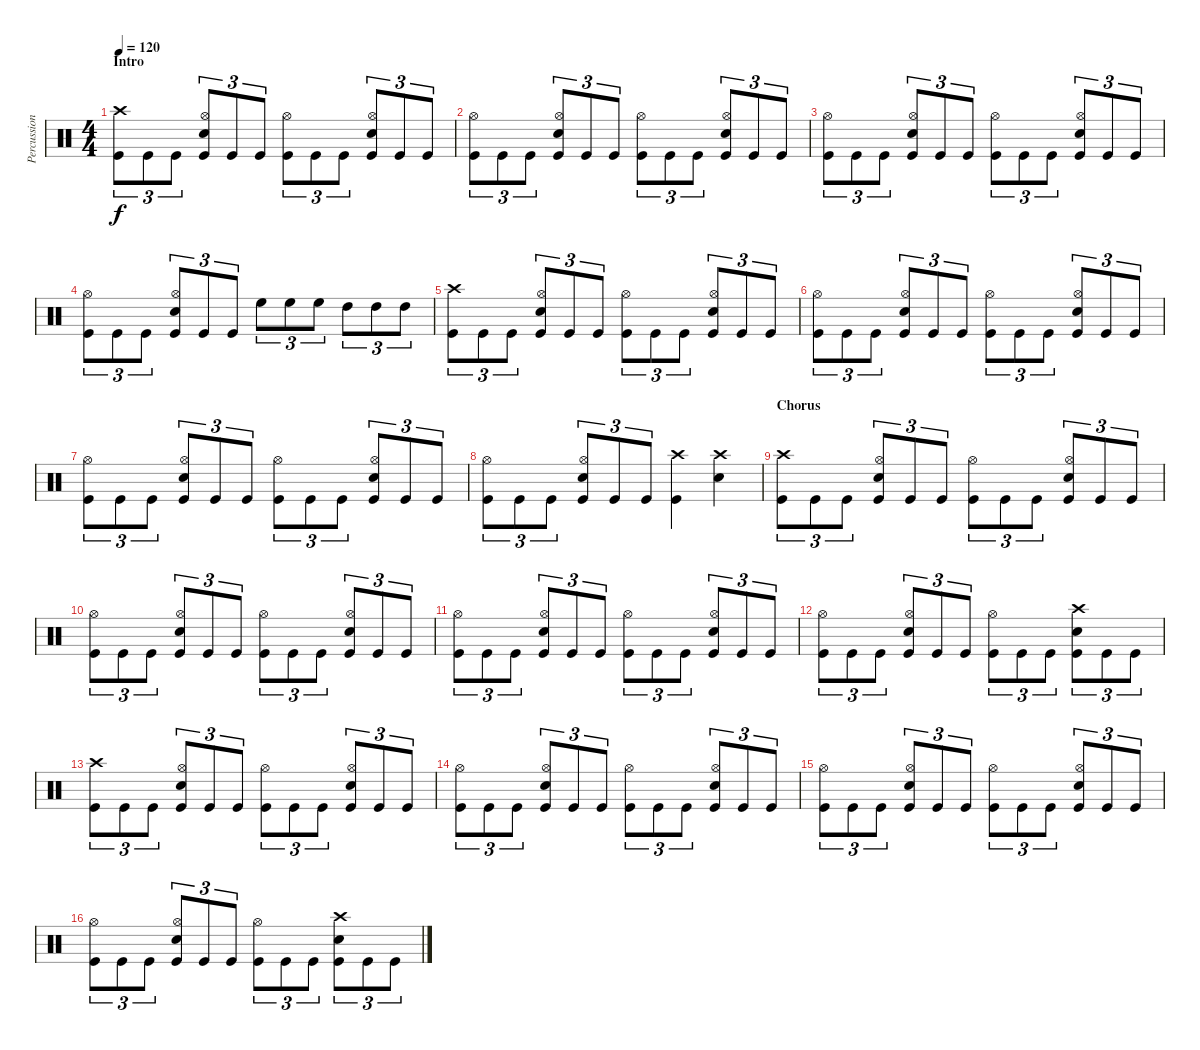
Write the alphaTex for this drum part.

\track ("Percussion" "Percussion") {instrument percussion}
\staff {score}
\articulation defaults
\ts (4 4)
\section ("" "Intro")
\tempo 120
\clef neutral
\ks c
("Crash high (hit)" "Kick (hit)").8{tu (3 2) dy f} "Kick (hit)".8{tu (3 2)} "Kick (hit)".8{tu (3 2)} ("Hi-Hat (open)" "Snare (hit) 2" "Kick (hit)").8{tu (3 2)} "Kick (hit)".8{tu (3 2)} "Kick (hit)".8{tu (3 2)} ("Hi-Hat (open)" "Kick (hit)").8{tu (3 2)} "Kick (hit)".8{tu (3 2)} "Kick (hit)".8{tu (3 2)} ("Hi-Hat (open)" "Snare (hit) 2" "Kick (hit)").8{tu (3 2)} "Kick (hit)".8{tu (3 2)} "Kick (hit)".8{tu (3 2)} |
("Hi-Hat (open)" "Kick (hit)").8{tu (3 2)} "Kick (hit)".8{tu (3 2)} "Kick (hit)".8{tu (3 2)} ("Hi-Hat (open)" "Snare (hit) 2" "Kick (hit)").8{tu (3 2)} "Kick (hit)".8{tu (3 2)} "Kick (hit)".8{tu (3 2)} ("Hi-Hat (open)" "Kick (hit)").8{tu (3 2)} "Kick (hit)".8{tu (3 2)} "Kick (hit)".8{tu (3 2)} ("Hi-Hat (open)" "Snare (hit) 2" "Kick (hit)").8{tu (3 2)} "Kick (hit)".8{tu (3 2)} "Kick (hit)".8{tu (3 2)} |
("Hi-Hat (open)" "Kick (hit)").8{tu (3 2)} "Kick (hit)".8{tu (3 2)} "Kick (hit)".8{tu (3 2)} ("Hi-Hat (open)" "Snare (hit) 2" "Kick (hit)").8{tu (3 2)} "Kick (hit)".8{tu (3 2)} "Kick (hit)".8{tu (3 2)} ("Hi-Hat (open)" "Kick (hit)").8{tu (3 2)} "Kick (hit)".8{tu (3 2)} "Kick (hit)".8{tu (3 2)} ("Hi-Hat (open)" "Snare (hit) 2" "Kick (hit)").8{tu (3 2)} "Kick (hit)".8{tu (3 2)} "Kick (hit)".8{tu (3 2)} |
("Hi-Hat (open)" "Kick (hit)").8{tu (3 2)} "Kick (hit)".8{tu (3 2)} "Kick (hit)".8{tu (3 2)} ("Hi-Hat (open)" "Snare (hit) 2" "Kick (hit)").8{tu (3 2)} "Kick (hit)".8{tu (3 2)} "Kick (hit)".8{tu (3 2)} "High Floor Tom (hit)".8{tu (3 2)} "High Floor Tom (hit)".8{tu (3 2)} "High Floor Tom (hit)".8{tu (3 2)} "High Tom (hit)".8{tu (3 2)} "High Tom (hit)".8{tu (3 2)} "High Tom (hit)".8{tu (3 2)} |
("Crash high (hit)" "Kick (hit)").8{tu (3 2)} "Kick (hit)".8{tu (3 2)} "Kick (hit)".8{tu (3 2)} ("Hi-Hat (open)" "Snare (hit) 2" "Kick (hit)").8{tu (3 2)} "Kick (hit)".8{tu (3 2)} "Kick (hit)".8{tu (3 2)} ("Hi-Hat (open)" "Kick (hit)").8{tu (3 2)} "Kick (hit)".8{tu (3 2)} "Kick (hit)".8{tu (3 2)} ("Hi-Hat (open)" "Snare (hit) 2" "Kick (hit)").8{tu (3 2)} "Kick (hit)".8{tu (3 2)} "Kick (hit)".8{tu (3 2)} |
("Hi-Hat (open)" "Kick (hit)").8{tu (3 2)} "Kick (hit)".8{tu (3 2)} "Kick (hit)".8{tu (3 2)} ("Hi-Hat (open)" "Snare (hit) 2" "Kick (hit)").8{tu (3 2)} "Kick (hit)".8{tu (3 2)} "Kick (hit)".8{tu (3 2)} ("Hi-Hat (open)" "Kick (hit)").8{tu (3 2)} "Kick (hit)".8{tu (3 2)} "Kick (hit)".8{tu (3 2)} ("Hi-Hat (open)" "Snare (hit) 2" "Kick (hit)").8{tu (3 2)} "Kick (hit)".8{tu (3 2)} "Kick (hit)".8{tu (3 2)} |
("Hi-Hat (open)" "Kick (hit)").8{tu (3 2)} "Kick (hit)".8{tu (3 2)} "Kick (hit)".8{tu (3 2)} ("Hi-Hat (open)" "Snare (hit) 2" "Kick (hit)").8{tu (3 2)} "Kick (hit)".8{tu (3 2)} "Kick (hit)".8{tu (3 2)} ("Hi-Hat (open)" "Kick (hit)").8{tu (3 2)} "Kick (hit)".8{tu (3 2)} "Kick (hit)".8{tu (3 2)} ("Hi-Hat (open)" "Snare (hit) 2" "Kick (hit)").8{tu (3 2)} "Kick (hit)".8{tu (3 2)} "Kick (hit)".8{tu (3 2)} |
("Hi-Hat (open)" "Kick (hit)").8{tu (3 2)} "Kick (hit)".8{tu (3 2)} "Kick (hit)".8{tu (3 2)} ("Hi-Hat (open)" "Snare (hit) 2" "Kick (hit)").8{tu (3 2)} "Kick (hit)".8{tu (3 2)} "Kick (hit)".8{tu (3 2)} ("Crash high (hit)" "Kick (hit)").4 ("Crash high (hit)" "Snare (hit) 2").4 |
\section ("" "Chorus")
("Crash high (hit)" "Kick (hit)").8{tu (3 2)} "Kick (hit)".8{tu (3 2)} "Kick (hit)".8{tu (3 2)} ("Hi-Hat (open)" "Snare (hit) 2" "Kick (hit)").8{tu (3 2)} "Kick (hit)".8{tu (3 2)} "Kick (hit)".8{tu (3 2)} ("Hi-Hat (open)" "Kick (hit)").8{tu (3 2)} "Kick (hit)".8{tu (3 2)} "Kick (hit)".8{tu (3 2)} ("Hi-Hat (open)" "Snare (hit) 2" "Kick (hit)").8{tu (3 2)} "Kick (hit)".8{tu (3 2)} "Kick (hit)".8{tu (3 2)} |
("Hi-Hat (open)" "Kick (hit)").8{tu (3 2)} "Kick (hit)".8{tu (3 2)} "Kick (hit)".8{tu (3 2)} ("Hi-Hat (open)" "Snare (hit) 2" "Kick (hit)").8{tu (3 2)} "Kick (hit)".8{tu (3 2)} "Kick (hit)".8{tu (3 2)} ("Hi-Hat (open)" "Kick (hit)").8{tu (3 2)} "Kick (hit)".8{tu (3 2)} "Kick (hit)".8{tu (3 2)} ("Hi-Hat (open)" "Snare (hit) 2" "Kick (hit)").8{tu (3 2)} "Kick (hit)".8{tu (3 2)} "Kick (hit)".8{tu (3 2)} |
("Hi-Hat (open)" "Kick (hit)").8{tu (3 2)} "Kick (hit)".8{tu (3 2)} "Kick (hit)".8{tu (3 2)} ("Hi-Hat (open)" "Snare (hit) 2" "Kick (hit)").8{tu (3 2)} "Kick (hit)".8{tu (3 2)} "Kick (hit)".8{tu (3 2)} ("Hi-Hat (open)" "Kick (hit)").8{tu (3 2)} "Kick (hit)".8{tu (3 2)} "Kick (hit)".8{tu (3 2)} ("Hi-Hat (open)" "Snare (hit) 2" "Kick (hit)").8{tu (3 2)} "Kick (hit)".8{tu (3 2)} "Kick (hit)".8{tu (3 2)} |
("Hi-Hat (open)" "Kick (hit)").8{tu (3 2)} "Kick (hit)".8{tu (3 2)} "Kick (hit)".8{tu (3 2)} ("Hi-Hat (open)" "Snare (hit) 2" "Kick (hit)").8{tu (3 2)} "Kick (hit)".8{tu (3 2)} "Kick (hit)".8{tu (3 2)} ("Hi-Hat (open)" "Kick (hit)").8{tu (3 2)} "Kick (hit)".8{tu (3 2)} "Kick (hit)".8{tu (3 2)} ("Crash high (hit)" "Snare (hit) 2" "Kick (hit)").8{tu (3 2)} "Kick (hit)".8{tu (3 2)} "Kick (hit)".8{tu (3 2)} |
("Crash high (hit)" "Kick (hit)").8{tu (3 2)} "Kick (hit)".8{tu (3 2)} "Kick (hit)".8{tu (3 2)} ("Hi-Hat (open)" "Snare (hit) 2" "Kick (hit)").8{tu (3 2)} "Kick (hit)".8{tu (3 2)} "Kick (hit)".8{tu (3 2)} ("Hi-Hat (open)" "Kick (hit)").8{tu (3 2)} "Kick (hit)".8{tu (3 2)} "Kick (hit)".8{tu (3 2)} ("Hi-Hat (open)" "Snare (hit) 2" "Kick (hit)").8{tu (3 2)} "Kick (hit)".8{tu (3 2)} "Kick (hit)".8{tu (3 2)} |
("Hi-Hat (open)" "Kick (hit)").8{tu (3 2)} "Kick (hit)".8{tu (3 2)} "Kick (hit)".8{tu (3 2)} ("Hi-Hat (open)" "Snare (hit) 2" "Kick (hit)").8{tu (3 2)} "Kick (hit)".8{tu (3 2)} "Kick (hit)".8{tu (3 2)} ("Hi-Hat (open)" "Kick (hit)").8{tu (3 2)} "Kick (hit)".8{tu (3 2)} "Kick (hit)".8{tu (3 2)} ("Hi-Hat (open)" "Snare (hit) 2" "Kick (hit)").8{tu (3 2)} "Kick (hit)".8{tu (3 2)} "Kick (hit)".8{tu (3 2)} |
("Hi-Hat (open)" "Kick (hit)").8{tu (3 2)} "Kick (hit)".8{tu (3 2)} "Kick (hit)".8{tu (3 2)} ("Hi-Hat (open)" "Snare (hit) 2" "Kick (hit)").8{tu (3 2)} "Kick (hit)".8{tu (3 2)} "Kick (hit)".8{tu (3 2)} ("Hi-Hat (open)" "Kick (hit)").8{tu (3 2)} "Kick (hit)".8{tu (3 2)} "Kick (hit)".8{tu (3 2)} ("Hi-Hat (open)" "Snare (hit) 2" "Kick (hit)").8{tu (3 2)} "Kick (hit)".8{tu (3 2)} "Kick (hit)".8{tu (3 2)} |
("Hi-Hat (open)" "Kick (hit)").8{tu (3 2)} "Kick (hit)".8{tu (3 2)} "Kick (hit)".8{tu (3 2)} ("Hi-Hat (open)" "Snare (hit) 2" "Kick (hit)").8{tu (3 2)} "Kick (hit)".8{tu (3 2)} "Kick (hit)".8{tu (3 2)} ("Hi-Hat (open)" "Kick (hit)").8{tu (3 2)} "Kick (hit)".8{tu (3 2)} "Kick (hit)".8{tu (3 2)} ("Crash high (hit)" "Snare (hit) 2" "Kick (hit)").8{tu (3 2)} "Kick (hit)".8{tu (3 2)} "Kick (hit)".8{tu (3 2)}
